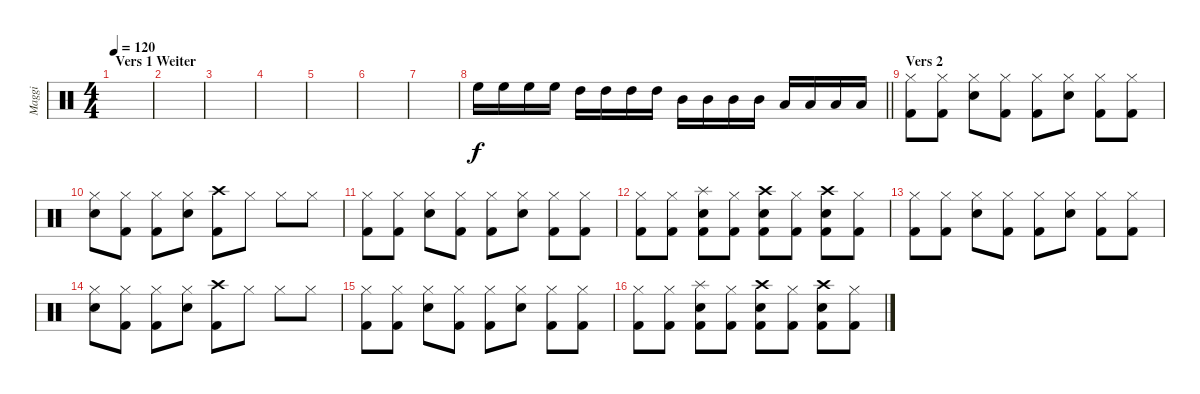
\track ("Maggi" "Maggi") {instrument percussion}
\staff {score}
\articulation defaults
\ts (4 4)
\section ("" "Vers 1 Weiter")
\tempo 120
\clef neutral
\ks c
|
|
|
|
|
|
|
\barLineRight lightlight "High Floor Tom (hit)".16 "High Floor Tom (hit)".16 "High Floor Tom (hit)".16 "High Floor Tom (hit)".16 "High Tom (hit)".16 "High Tom (hit)".16 "High Tom (hit)".16 "High Tom (hit)".16 "Mid Tom (hit)".16 "Mid Tom (hit)".16 "Mid Tom (hit)".16 "Mid Tom (hit)".16 "Low Tom (hit)".16 "Low Tom (hit)".16 "Low Tom (hit)".16 "Low Tom (hit)".16
|
\section ("" "Vers 2")
("Hi-Hat (closed)" "Kick (hit) 2").8 ("Hi-Hat (closed)" "Kick (hit) 2").8 ("Hi-Hat (closed)" "Snare (hit) 2").8 ("Hi-Hat (closed)" "Kick (hit) 2").8 ("Hi-Hat (closed)" "Kick (hit) 2").8 ("Hi-Hat (closed)" "Snare (hit) 2").8 ("Hi-Hat (closed)" "Kick (hit) 2").8 ("Hi-Hat (closed)" "Kick (hit) 2").8 |
("Hi-Hat (closed)" "Snare (hit) 2").8 ("Hi-Hat (closed)" "Kick (hit) 2").8 ("Hi-Hat (closed)" "Kick (hit) 2").8 ("Hi-Hat (closed)" "Snare (hit) 2").8 ("Crash high (hit)" "Kick (hit) 2").8 "Hi-Hat (closed)".8 "Hi-Hat (closed)".8 "Hi-Hat (closed)".8 |
("Hi-Hat (closed)" "Kick (hit) 2").8 ("Hi-Hat (closed)" "Kick (hit) 2").8 ("Hi-Hat (closed)" "Snare (hit) 2").8 ("Hi-Hat (closed)" "Kick (hit) 2").8 ("Hi-Hat (closed)" "Kick (hit) 2").8 ("Hi-Hat (closed)" "Snare (hit) 2").8 ("Hi-Hat (closed)" "Kick (hit) 2").8 ("Hi-Hat (closed)" "Kick (hit) 2").8 |
("Hi-Hat (closed)" "Kick (hit) 2").8 ("Hi-Hat (closed)" "Kick (hit) 2").8 ("Splash (hit)" "Snare (hit) 2" "Kick (hit) 2").8 ("Hi-Hat (closed)" "Kick (hit) 2").8 ("Crash high (hit)" "Snare (hit) 2" "Kick (hit) 2").8 ("Hi-Hat (closed)" "Kick (hit) 2").8 ("Crash high (hit)" "Snare (hit) 2" "Kick (hit) 2").8 ("Hi-Hat (closed)" "Kick (hit) 2").8 |
("Hi-Hat (closed)" "Kick (hit) 2").8 ("Hi-Hat (closed)" "Kick (hit) 2").8 ("Hi-Hat (closed)" "Snare (hit) 2").8 ("Hi-Hat (closed)" "Kick (hit) 2").8 ("Hi-Hat (closed)" "Kick (hit) 2").8 ("Hi-Hat (closed)" "Snare (hit) 2").8 ("Hi-Hat (closed)" "Kick (hit) 2").8 ("Hi-Hat (closed)" "Kick (hit) 2").8 |
("Hi-Hat (closed)" "Snare (hit) 2").8 ("Hi-Hat (closed)" "Kick (hit) 2").8 ("Hi-Hat (closed)" "Kick (hit) 2").8 ("Hi-Hat (closed)" "Snare (hit) 2").8 ("Crash high (hit)" "Kick (hit) 2").8 "Hi-Hat (closed)".8 "Hi-Hat (closed)".8 "Hi-Hat (closed)".8 |
("Hi-Hat (closed)" "Kick (hit) 2").8 ("Hi-Hat (closed)" "Kick (hit) 2").8 ("Hi-Hat (closed)" "Snare (hit) 2").8 ("Hi-Hat (closed)" "Kick (hit) 2").8 ("Hi-Hat (closed)" "Kick (hit) 2").8 ("Hi-Hat (closed)" "Snare (hit) 2").8 ("Hi-Hat (closed)" "Kick (hit) 2").8 ("Hi-Hat (closed)" "Kick (hit) 2").8 |
("Hi-Hat (closed)" "Kick (hit) 2").8 ("Hi-Hat (closed)" "Kick (hit) 2").8 ("Splash (hit)" "Snare (hit) 2" "Kick (hit) 2").8 ("Hi-Hat (closed)" "Kick (hit) 2").8 ("Crash high (hit)" "Snare (hit) 2" "Kick (hit) 2").8 ("Hi-Hat (closed)" "Kick (hit) 2").8 ("Crash high (hit)" "Snare (hit) 2" "Kick (hit) 2").8 ("Hi-Hat (closed)" "Kick (hit) 2").8
